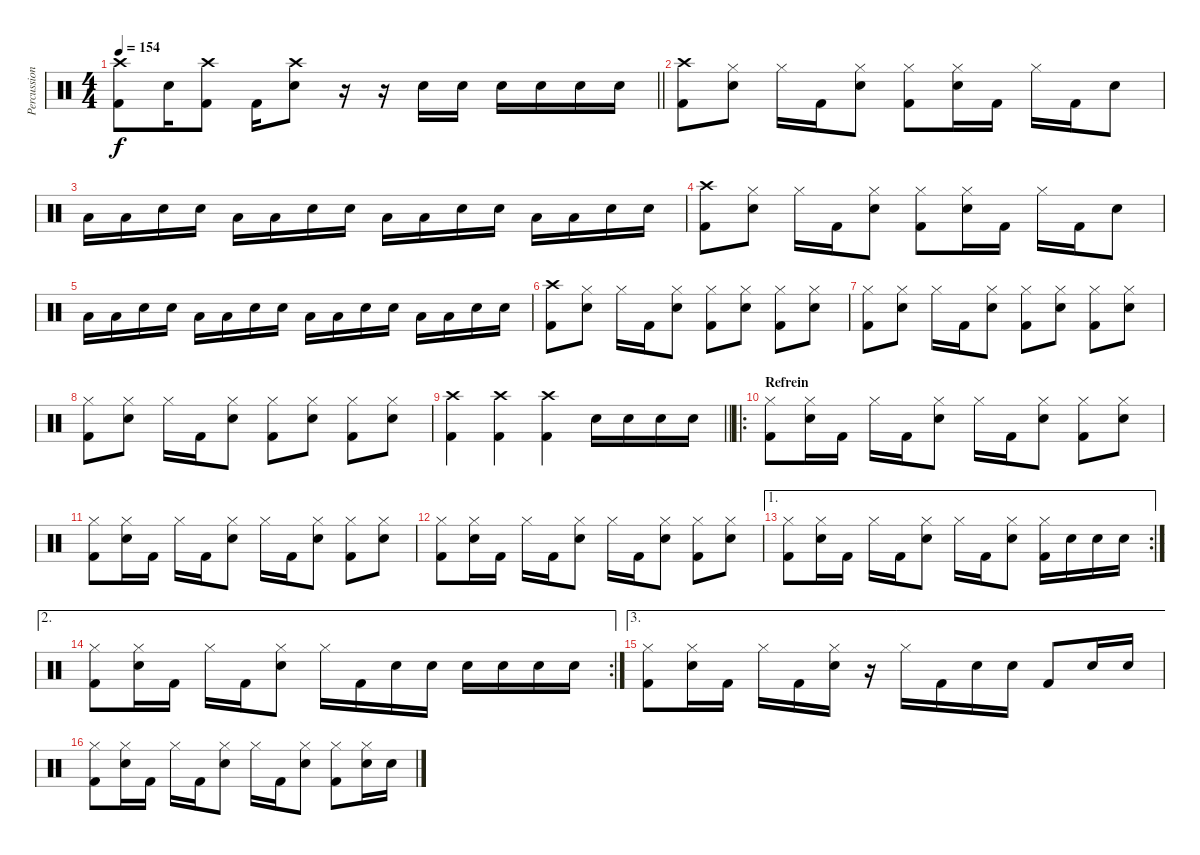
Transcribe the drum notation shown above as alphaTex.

\track ("Percussion" "Percussion") {instrument percussion}
\staff {score}
\articulation defaults
\ts (4 4)
\tempo 154
\clef neutral
\barLineRight lightlight
\ks c
("Crash high (hit)" "Kick (hit) 2").8{dy f} "Snare (hit) 2".16 ("Crash high (hit)" "Kick (hit) 2").8 "Kick (hit) 2".16 ("Crash high (hit)" "Snare (hit) 2").8 r.16 r.16 "Snare (hit) 2".16 "Snare (hit) 2".16 "Snare (hit) 2".16 "Snare (hit) 2".16 "Snare (hit) 2".16 "Snare (hit) 2".16 |
("Crash high (hit)" "Kick (hit) 2").8 ("Hi-Hat (closed)" "Snare (hit) 2").8 "Hi-Hat (closed)".16 "Kick (hit) 2".16 ("Hi-Hat (closed)" "Snare (hit) 2").8 ("Hi-Hat (closed)" "Kick (hit) 2").8 ("Hi-Hat (closed)" "Snare (hit) 2").16 "Kick (hit) 2".16 "Hi-Hat (closed)".16 "Kick (hit) 2".16 "Snare (hit) 2".8 |
"Low Tom (hit)".16 "Low Tom (hit)".16 "Snare (hit) 2".16 "Snare (hit) 2".16 "Low Tom (hit)".16 "Low Tom (hit)".16 "Snare (hit) 2".16 "Snare (hit) 2".16 "Low Tom (hit)".16 "Low Tom (hit)".16 "Snare (hit) 2".16 "Snare (hit) 2".16 "Low Tom (hit)".16 "Low Tom (hit)".16 "Snare (hit) 2".16 "Snare (hit) 2".16 |
("Crash high (hit)" "Kick (hit) 2").8 ("Hi-Hat (closed)" "Snare (hit) 2").8 "Hi-Hat (closed)".16 "Kick (hit) 2".16 ("Hi-Hat (closed)" "Snare (hit) 2").8 ("Hi-Hat (closed)" "Kick (hit) 2").8 ("Hi-Hat (closed)" "Snare (hit) 2").16 "Kick (hit) 2".16 "Hi-Hat (closed)".16 "Kick (hit) 2".16 "Snare (hit) 2".8 |
"Low Tom (hit)".16 "Low Tom (hit)".16 "Snare (hit) 2".16 "Snare (hit) 2".16 "Low Tom (hit)".16 "Low Tom (hit)".16 "Snare (hit) 2".16 "Snare (hit) 2".16 "Low Tom (hit)".16 "Low Tom (hit)".16 "Snare (hit) 2".16 "Snare (hit) 2".16 "Low Tom (hit)".16 "Low Tom (hit)".16 "Snare (hit) 2".16 "Snare (hit) 2".16 |
("Crash high (hit)" "Kick (hit) 2").8 ("Hi-Hat (closed)" "Snare (hit) 2").8 "Hi-Hat (closed)".16 "Kick (hit) 2".16 ("Hi-Hat (closed)" "Snare (hit) 2").8 ("Hi-Hat (closed)" "Kick (hit) 2").8 ("Hi-Hat (closed)" "Snare (hit) 2").8 ("Hi-Hat (closed)" "Kick (hit) 2").8 ("Hi-Hat (closed)" "Snare (hit) 2").8 |
("Hi-Hat (closed)" "Kick (hit) 2").8 ("Hi-Hat (closed)" "Snare (hit) 2").8 "Hi-Hat (closed)".16 "Kick (hit) 2".16 ("Hi-Hat (closed)" "Snare (hit) 2").8 ("Hi-Hat (closed)" "Kick (hit) 2").8 ("Hi-Hat (closed)" "Snare (hit) 2").8 ("Hi-Hat (closed)" "Kick (hit) 2").8 ("Hi-Hat (closed)" "Snare (hit) 2").8 |
("Hi-Hat (closed)" "Kick (hit) 2").8 ("Hi-Hat (closed)" "Snare (hit) 2").8 "Hi-Hat (closed)".16 "Kick (hit) 2".16 ("Hi-Hat (closed)" "Snare (hit) 2").8 ("Hi-Hat (closed)" "Kick (hit) 2").8 ("Hi-Hat (closed)" "Snare (hit) 2").8 ("Hi-Hat (closed)" "Kick (hit) 2").8 ("Hi-Hat (closed)" "Snare (hit) 2").8 |
\barLineRight lightlight
("Crash high (hit)" "Kick (hit) 2").4 ("Crash high (hit)" "Kick (hit) 2").4 ("Crash high (hit)" "Kick (hit) 2").4 "Snare (hit) 2".16 "Snare (hit) 2".16 "Snare (hit) 2".16 "Snare (hit) 2".16 |
\ro
\section ("" "Refrein")
("Hi-Hat (closed)" "Kick (hit) 2").8 ("Hi-Hat (closed)" "Snare (hit) 2").16 "Kick (hit) 2".16 "Hi-Hat (closed)".16 "Kick (hit) 2".16 ("Hi-Hat (closed)" "Snare (hit) 2").8 "Hi-Hat (closed)".16 "Kick (hit) 2".16 ("Hi-Hat (closed)" "Snare (hit) 2").8 ("Hi-Hat (closed)" "Kick (hit) 2").8 ("Hi-Hat (closed)" "Snare (hit) 2").8 |
("Hi-Hat (closed)" "Kick (hit) 2").8 ("Hi-Hat (closed)" "Snare (hit) 2").16 "Kick (hit) 2".16 "Hi-Hat (closed)".16 "Kick (hit) 2".16 ("Hi-Hat (closed)" "Snare (hit) 2").8 "Hi-Hat (closed)".16 "Kick (hit) 2".16 ("Hi-Hat (closed)" "Snare (hit) 2").8 ("Hi-Hat (closed)" "Kick (hit) 2").8 ("Hi-Hat (closed)" "Snare (hit) 2").8 |
("Hi-Hat (closed)" "Kick (hit) 2").8 ("Hi-Hat (closed)" "Snare (hit) 2").16 "Kick (hit) 2".16 "Hi-Hat (closed)".16 "Kick (hit) 2".16 ("Hi-Hat (closed)" "Snare (hit) 2").8 "Hi-Hat (closed)".16 "Kick (hit) 2".16 ("Hi-Hat (closed)" "Snare (hit) 2").8 ("Hi-Hat (closed)" "Kick (hit) 2").8 ("Hi-Hat (closed)" "Snare (hit) 2").8 |
\ae 1
\rc 2
("Hi-Hat (closed)" "Kick (hit) 2").8 ("Hi-Hat (closed)" "Snare (hit) 2").16 "Kick (hit) 2".16 "Hi-Hat (closed)".16 "Kick (hit) 2".16 ("Hi-Hat (closed)" "Snare (hit) 2").8 "Hi-Hat (closed)".16 "Kick (hit) 2".16 ("Hi-Hat (closed)" "Snare (hit) 2").8 ("Hi-Hat (closed)" "Kick (hit) 2").16 "Snare (hit) 2".16 "Snare (hit) 2".16 "Snare (hit) 2".16 |
\ae 2
\rc 2
("Hi-Hat (closed)" "Kick (hit) 2").8 ("Hi-Hat (closed)" "Snare (hit) 2").16 "Kick (hit) 2".16 "Hi-Hat (closed)".16 "Kick (hit) 2".16 ("Hi-Hat (closed)" "Snare (hit) 2").8 "Hi-Hat (closed)".16 "Kick (hit) 2".16 "Snare (hit) 2".16 "Snare (hit) 2".16 "Snare (hit) 2".16 "Snare (hit) 2".16 "Snare (hit) 2".16 "Snare (hit) 2".16 |
\ae 3
("Hi-Hat (closed)" "Kick (hit) 2").8 ("Hi-Hat (closed)" "Snare (hit) 2").16 "Kick (hit) 2".16 "Hi-Hat (closed)".16 "Kick (hit) 2".16 ("Hi-Hat (closed)" "Snare (hit) 2").16 r.16 "Hi-Hat (closed)".16 "Kick (hit) 2".16 "Snare (hit) 2".16 "Snare (hit) 2".16 "Kick (hit) 2".8 "Snare (hit) 2".16 "Snare (hit) 2".16 |
("Hi-Hat (closed)" "Kick (hit) 2").8 ("Hi-Hat (closed)" "Snare (hit) 2").16 "Kick (hit) 2".16 "Hi-Hat (closed)".16 "Kick (hit) 2".16 ("Hi-Hat (closed)" "Snare (hit) 2").8 "Hi-Hat (closed)".16 "Kick (hit) 2".16 ("Hi-Hat (closed)" "Snare (hit) 2").8 ("Hi-Hat (closed)" "Kick (hit) 2").8 ("Hi-Hat (closed)" "Snare (hit) 2").16 "Snare (hit) 2".16
